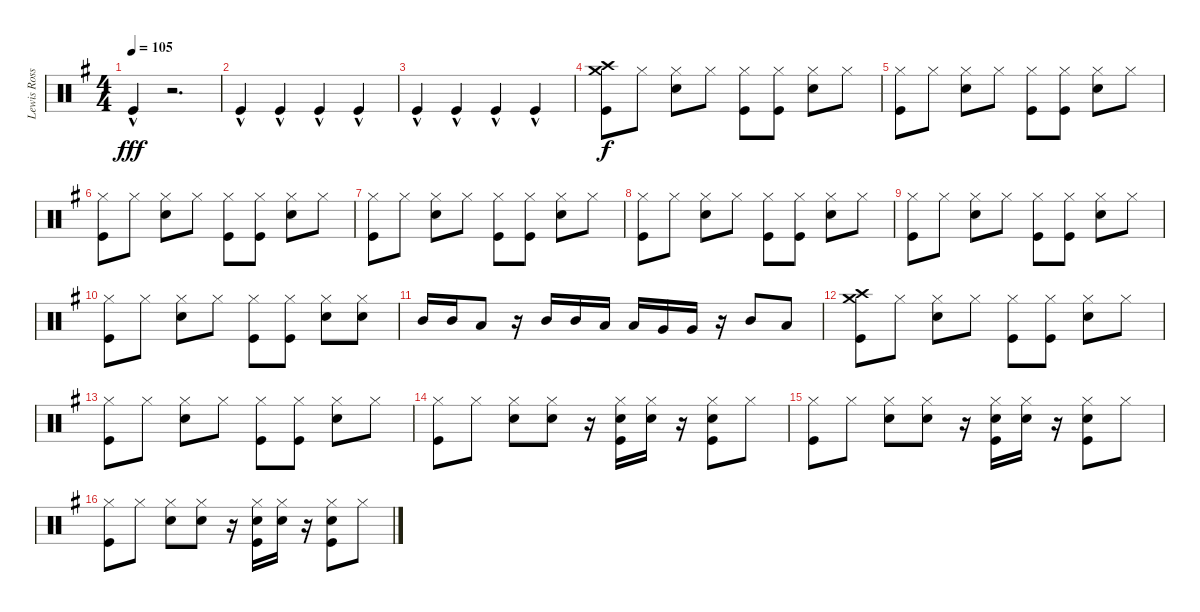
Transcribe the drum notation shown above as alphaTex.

\track ("Lewis Ross Drums" "Lewis Ross") {instrument percussion}
\staff {score}
\articulation defaults
\ts (4 4)
\tempo 105
\clef neutral
\ks g "Kick (hit)"{hac}.4{dy fff}
r.2{d} |
"Kick (hit)"{hac}.4 "Kick (hit)"{hac}.4 "Kick (hit)"{hac}.4 "Kick (hit)"{hac}.4 |
"Kick (hit)"{hac}.4 "Kick (hit)"{hac}.4 "Kick (hit)"{hac}.4 "Kick (hit)"{hac}.4 |
("Crash high (hit)" "Crash medium (hit)" "Kick (hit)").8{dy f volume 13} "Hi-Hat (closed)".8 ("Hi-Hat (closed)" "Snare (hit) 2").8 "Hi-Hat (closed)".8 ("Hi-Hat (closed)" "Kick (hit)").8 ("Hi-Hat (closed)" "Kick (hit)").8 ("Hi-Hat (closed)" "Snare (hit) 2").8 "Hi-Hat (closed)".8 |
("Hi-Hat (closed)" "Kick (hit)").8 "Hi-Hat (closed)".8 ("Hi-Hat (closed)" "Snare (hit) 2").8 "Hi-Hat (closed)".8 ("Hi-Hat (closed)" "Kick (hit)").8 ("Hi-Hat (closed)" "Kick (hit)").8 ("Hi-Hat (closed)" "Snare (hit) 2").8 "Hi-Hat (closed)".8 |
("Hi-Hat (closed)" "Kick (hit)").8 "Hi-Hat (closed)".8 ("Hi-Hat (closed)" "Snare (hit) 2").8 "Hi-Hat (closed)".8 ("Hi-Hat (closed)" "Kick (hit)").8 ("Hi-Hat (closed)" "Kick (hit)").8 ("Hi-Hat (closed)" "Snare (hit) 2").8 "Hi-Hat (closed)".8 |
("Hi-Hat (closed)" "Kick (hit)").8 "Hi-Hat (closed)".8 ("Hi-Hat (closed)" "Snare (hit) 2").8 "Hi-Hat (closed)".8 ("Hi-Hat (closed)" "Kick (hit)").8 ("Hi-Hat (closed)" "Kick (hit)").8 ("Hi-Hat (closed)" "Snare (hit) 2").8 "Hi-Hat (closed)".8 |
("Hi-Hat (closed)" "Kick (hit)").8 "Hi-Hat (closed)".8 ("Hi-Hat (closed)" "Snare (hit) 2").8 "Hi-Hat (closed)".8 ("Hi-Hat (closed)" "Kick (hit)").8 ("Hi-Hat (closed)" "Kick (hit)").8 ("Hi-Hat (closed)" "Snare (hit) 2").8 "Hi-Hat (closed)".8 |
("Hi-Hat (closed)" "Kick (hit)").8 "Hi-Hat (closed)".8 ("Hi-Hat (closed)" "Snare (hit) 2").8 "Hi-Hat (closed)".8 ("Hi-Hat (closed)" "Kick (hit)").8 ("Hi-Hat (closed)" "Kick (hit)").8 ("Hi-Hat (closed)" "Snare (hit) 2").8 "Hi-Hat (closed)".8 |
("Hi-Hat (closed)" "Kick (hit)").8 "Hi-Hat (closed)".8 ("Hi-Hat (closed)" "Snare (hit) 2").8 "Hi-Hat (closed)".8 ("Hi-Hat (closed)" "Kick (hit)").8 ("Hi-Hat (closed)" "Kick (hit)").8 ("Hi-Hat (closed)" "Snare (hit) 2").8 ("Hi-Hat (closed)" "Snare (hit) 2").8 |
"Mid Tom (hit)".16 "Mid Tom (hit)".16 "Low Tom (hit)".8 r.16 "Mid Tom (hit)".16 "Mid Tom (hit)".16 "Low Tom (hit)".16 "Low Tom (hit)".16 "Very Low Tom (hit)".16 "Very Low Tom (hit)".16 r.16 "Mid Tom (hit)".8 "Low Tom (hit)".8 |
("Crash high (hit)" "Crash medium (hit)" "Kick (hit)").8 "Hi-Hat (closed)".8 ("Hi-Hat (closed)" "Snare (hit) 2").8 "Hi-Hat (closed)".8 ("Hi-Hat (closed)" "Kick (hit)").8 ("Hi-Hat (closed)" "Kick (hit)").8 ("Hi-Hat (closed)" "Snare (hit) 2").8 "Hi-Hat (closed)".8 |
("Hi-Hat (closed)" "Kick (hit)").8 "Hi-Hat (closed)".8 ("Hi-Hat (closed)" "Snare (hit) 2").8 "Hi-Hat (closed)".8 ("Hi-Hat (closed)" "Kick (hit)").8 ("Hi-Hat (closed)" "Kick (hit)").8 ("Hi-Hat (closed)" "Snare (hit) 2").8 "Hi-Hat (closed)".8 |
("Hi-Hat (closed)" "Kick (hit)").8 "Hi-Hat (closed)".8 ("Hi-Hat (closed)" "Snare (hit) 2").8 ("Hi-Hat (closed)" "Snare (hit) 2").8 r.16 ("Hi-Hat (closed)" "Snare (hit) 2" "Kick (hit)").16 ("Hi-Hat (closed)" "Snare (hit) 2").16 r.16 ("Hi-Hat (closed)" "Snare (hit) 2" "Kick (hit)").8 "Hi-Hat (closed)".8 |
("Hi-Hat (closed)" "Kick (hit)").8 "Hi-Hat (closed)".8 ("Hi-Hat (closed)" "Snare (hit) 2").8 ("Hi-Hat (closed)" "Snare (hit) 2").8 r.16 ("Hi-Hat (closed)" "Snare (hit) 2" "Kick (hit)").16 ("Hi-Hat (closed)" "Snare (hit) 2").16 r.16 ("Hi-Hat (closed)" "Snare (hit) 2" "Kick (hit)").8 "Hi-Hat (closed)".8 |
("Hi-Hat (closed)" "Kick (hit)").8 "Hi-Hat (closed)".8 ("Hi-Hat (closed)" "Snare (hit) 2").8 ("Hi-Hat (closed)" "Snare (hit) 2").8 r.16 ("Hi-Hat (closed)" "Snare (hit) 2" "Kick (hit)").16 ("Hi-Hat (closed)" "Snare (hit) 2").16 r.16 ("Hi-Hat (closed)" "Snare (hit) 2" "Kick (hit)").8 "Hi-Hat (closed)".8
